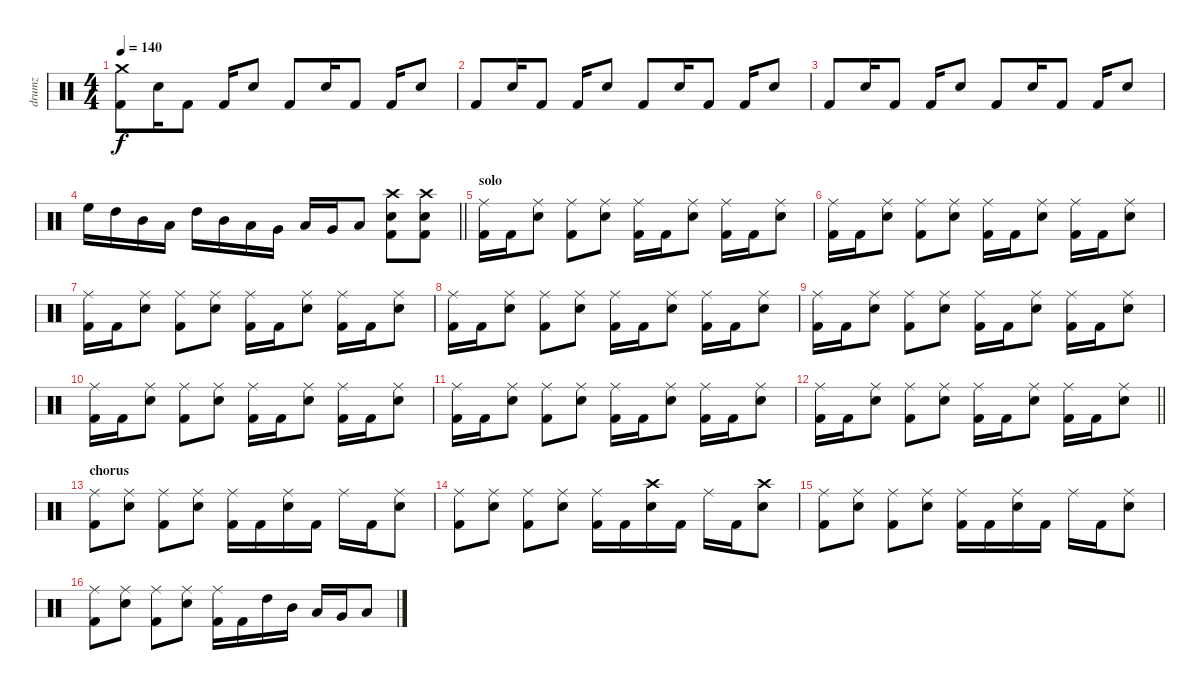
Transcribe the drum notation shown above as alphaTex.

\track ("drumz" "drumz") {instrument percussion}
\staff {score}
\articulation defaults
\ts (4 4)
\tempo 140
\clef neutral
\ks c
("Crash medium (hit)" "Kick (hit) 2").8{dy f} "Electric Snare (hit)".16 "Kick (hit) 2".8 "Kick (hit) 2".16 "Electric Snare (hit)".8 "Kick (hit) 2".8 "Electric Snare (hit)".16 "Kick (hit) 2".8 "Kick (hit) 2".16 "Electric Snare (hit)".8 |
"Kick (hit) 2".8 "Electric Snare (hit)".16 "Kick (hit) 2".8 "Kick (hit) 2".16 "Electric Snare (hit)".8 "Kick (hit) 2".8 "Electric Snare (hit)".16 "Kick (hit) 2".8 "Kick (hit) 2".16 "Electric Snare (hit)".8 |
"Kick (hit) 2".8 "Electric Snare (hit)".16 "Kick (hit) 2".8 "Kick (hit) 2".16 "Electric Snare (hit)".8 "Kick (hit) 2".8 "Electric Snare (hit)".16 "Kick (hit) 2".8 "Kick (hit) 2".16 "Electric Snare (hit)".8 |
\barLineRight lightlight "High Floor Tom (hit)".16 "High Tom (hit)".16 "Mid Tom (hit)".16 "Low Tom (hit)".16 "High Tom (hit)".16 "Mid Tom (hit)".16 "Low Tom (hit)".16 "Very Low Tom (hit)".16 "Low Tom (hit)".16 "Very Low Tom (hit)".16 "Low Floor Tom (hit)".8
("Crash high (hit)" "Electric Snare (hit)" "Kick (hit) 2").8 ("Crash high (hit)" "Electric Snare (hit)" "Kick (hit) 2").8 |
\section ("" "solo")
("Ride (middle)" "Kick (hit) 2").16 "Kick (hit) 2".16 ("Ride (middle)" "Electric Snare (hit)").8 ("Ride (middle)" "Kick (hit) 2").8 ("Ride (middle)" "Electric Snare (hit)").8 ("Ride (middle)" "Kick (hit) 2").16 "Kick (hit) 2".16 ("Ride (middle)" "Electric Snare (hit)").8 ("Ride (middle)" "Kick (hit) 2").16 "Kick (hit) 2".16 ("Ride (middle)" "Electric Snare (hit)").8 |
("Ride (middle)" "Kick (hit) 2").16 "Kick (hit) 2".16 ("Ride (middle)" "Electric Snare (hit)").8 ("Ride (middle)" "Kick (hit) 2").8 ("Ride (middle)" "Electric Snare (hit)").8 ("Ride (middle)" "Kick (hit) 2").16 "Kick (hit) 2".16 ("Ride (middle)" "Electric Snare (hit)").8 ("Ride (middle)" "Kick (hit) 2").16 "Kick (hit) 2".16 ("Ride (middle)" "Electric Snare (hit)").8 |
("Ride (middle)" "Kick (hit) 2").16 "Kick (hit) 2".16 ("Ride (middle)" "Electric Snare (hit)").8 ("Ride (middle)" "Kick (hit) 2").8 ("Ride (middle)" "Electric Snare (hit)").8 ("Ride (middle)" "Kick (hit) 2").16 "Kick (hit) 2".16 ("Ride (middle)" "Electric Snare (hit)").8 ("Ride (middle)" "Kick (hit) 2").16 "Kick (hit) 2".16 ("Ride (middle)" "Electric Snare (hit)").8 |
("Ride (middle)" "Kick (hit) 2").16 "Kick (hit) 2".16 ("Ride (middle)" "Electric Snare (hit)").8 ("Ride (middle)" "Kick (hit) 2").8 ("Ride (middle)" "Electric Snare (hit)").8 ("Ride (middle)" "Kick (hit) 2").16 "Kick (hit) 2".16 ("Ride (middle)" "Electric Snare (hit)").8 ("Ride (middle)" "Kick (hit) 2").16 "Kick (hit) 2".16 ("Ride (middle)" "Electric Snare (hit)").8 |
("Ride (middle)" "Kick (hit) 2").16 "Kick (hit) 2".16 ("Ride (middle)" "Electric Snare (hit)").8 ("Ride (middle)" "Kick (hit) 2").8 ("Ride (middle)" "Electric Snare (hit)").8 ("Ride (middle)" "Kick (hit) 2").16 "Kick (hit) 2".16 ("Ride (middle)" "Electric Snare (hit)").8 ("Ride (middle)" "Kick (hit) 2").16 "Kick (hit) 2".16 ("Ride (middle)" "Electric Snare (hit)").8 |
("Ride (middle)" "Kick (hit) 2").16 "Kick (hit) 2".16 ("Ride (middle)" "Electric Snare (hit)").8 ("Ride (middle)" "Kick (hit) 2").8 ("Ride (middle)" "Electric Snare (hit)").8 ("Ride (middle)" "Kick (hit) 2").16 "Kick (hit) 2".16 ("Ride (middle)" "Electric Snare (hit)").8 ("Ride (middle)" "Kick (hit) 2").16 "Kick (hit) 2".16 ("Ride (middle)" "Electric Snare (hit)").8 |
("Ride (middle)" "Kick (hit) 2").16 "Kick (hit) 2".16 ("Ride (middle)" "Electric Snare (hit)").8 ("Ride (middle)" "Kick (hit) 2").8 ("Ride (middle)" "Electric Snare (hit)").8 ("Ride (middle)" "Kick (hit) 2").16 "Kick (hit) 2".16 ("Ride (middle)" "Electric Snare (hit)").8 ("Ride (middle)" "Kick (hit) 2").16 "Kick (hit) 2".16 ("Ride (middle)" "Electric Snare (hit)").8 |
\barLineRight lightlight
("Ride (middle)" "Kick (hit) 2").16 "Kick (hit) 2".16 ("Ride (middle)" "Electric Snare (hit)").8 ("Ride (middle)" "Kick (hit) 2").8 ("Ride (middle)" "Electric Snare (hit)").8 ("Ride (middle)" "Kick (hit) 2").16 "Kick (hit) 2".16 ("Ride (middle)" "Electric Snare (hit)").8 ("Ride (middle)" "Kick (hit) 2").16 "Kick (hit) 2".16 ("Ride (middle)" "Electric Snare (hit)").8 |
\section ("" "chorus")
("Ride (middle)" "Kick (hit) 2").8 ("Ride (middle)" "Electric Snare (hit)").8 ("Ride (middle)" "Kick (hit) 2").8 ("Ride (middle)" "Electric Snare (hit)").8 ("Ride (middle)" "Kick (hit) 2").16 "Kick (hit) 2".16 ("Ride (middle)" "Electric Snare (hit)").16 "Kick (hit) 2".16 "Ride (middle)".16 "Kick (hit) 2".16 ("Ride (middle)" "Electric Snare (hit)").8 |
("Ride (middle)" "Kick (hit) 2").8 ("Ride (middle)" "Electric Snare (hit)").8 ("Ride (middle)" "Kick (hit) 2").8 ("Ride (middle)" "Electric Snare (hit)").8 ("Ride (middle)" "Kick (hit) 2").16 "Kick (hit) 2".16 ("Crash high (hit)" "Electric Snare (hit)").16 "Kick (hit) 2".16 "Ride (middle)".16 "Kick (hit) 2".16 ("Crash high (hit)" "Electric Snare (hit)").8 |
("Ride (middle)" "Kick (hit) 2").8 ("Ride (middle)" "Electric Snare (hit)").8 ("Ride (middle)" "Kick (hit) 2").8 ("Ride (middle)" "Electric Snare (hit)").8 ("Ride (middle)" "Kick (hit) 2").16 "Kick (hit) 2".16 ("Ride (middle)" "Electric Snare (hit)").16 "Kick (hit) 2".16 "Ride (middle)".16 "Kick (hit) 2".16 ("Ride (middle)" "Electric Snare (hit)").8 |
("Ride (middle)" "Kick (hit) 2").8 ("Ride (middle)" "Electric Snare (hit)").8 ("Ride (middle)" "Kick (hit) 2").8 ("Ride (middle)" "Electric Snare (hit)").8 ("Ride (middle)" "Kick (hit) 2").16 "Kick (hit) 2".16 "High Tom (hit)".16 "Mid Tom (hit)".16 "Low Tom (hit)".16 "Very Low Tom (hit)".16 "Low Floor Tom (hit)".8
